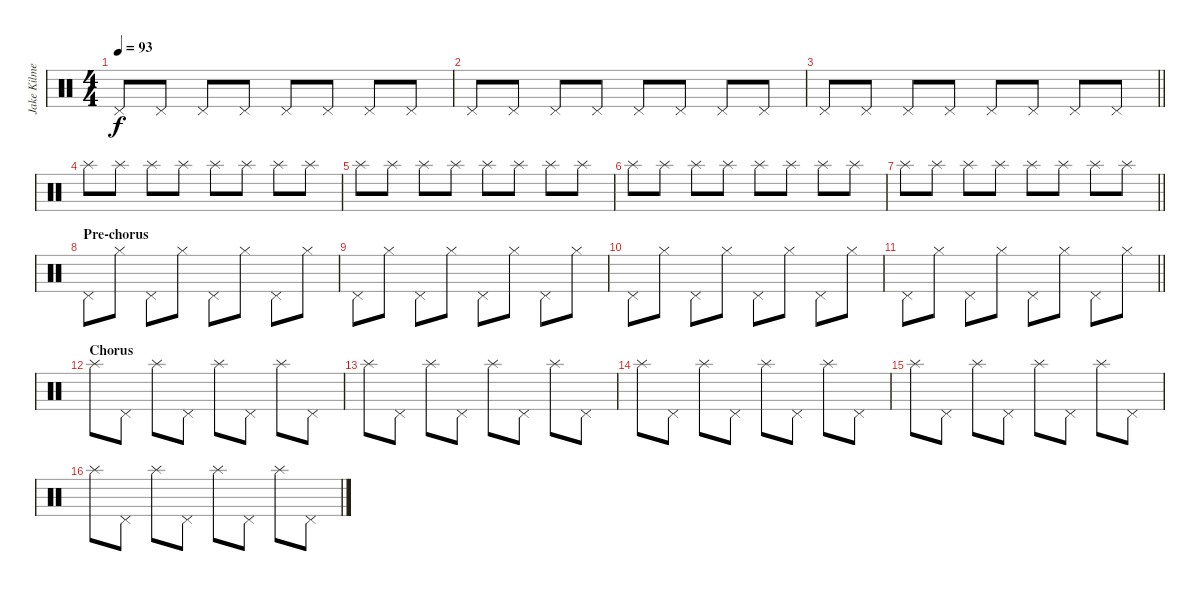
\track ("Jake Kilmer (Drums)" "Jake Kilme") {instrument percussion}
\staff {score}
\articulation defaults
\ts (4 4)
\tempo 93
\clef neutral
\ks c "Pedal Hi-Hat (hit)".8{dy f} "Pedal Hi-Hat (hit)".8 "Pedal Hi-Hat (hit)".8 "Pedal Hi-Hat (hit)".8 "Pedal Hi-Hat (hit)".8 "Pedal Hi-Hat (hit)".8 "Pedal Hi-Hat (hit)".8 "Pedal Hi-Hat (hit)".8
|
"Pedal Hi-Hat (hit)".8 "Pedal Hi-Hat (hit)".8 "Pedal Hi-Hat (hit)".8 "Pedal Hi-Hat (hit)".8 "Pedal Hi-Hat (hit)".8 "Pedal Hi-Hat (hit)".8 "Pedal Hi-Hat (hit)".8 "Pedal Hi-Hat (hit)".8 |
\barLineRight lightlight "Pedal Hi-Hat (hit)".8 "Pedal Hi-Hat (hit)".8 "Pedal Hi-Hat (hit)".8 "Pedal Hi-Hat (hit)".8 "Pedal Hi-Hat (hit)".8 "Pedal Hi-Hat (hit)".8 "Pedal Hi-Hat (hit)".8 "Pedal Hi-Hat (hit)".8
|
"Splash (hit)".8 "Splash (hit)".8 "Splash (hit)".8 "Splash (hit)".8 "Splash (hit)".8 "Splash (hit)".8 "Splash (hit)".8 "Splash (hit)".8 |
"Splash (hit)".8 "Splash (hit)".8 "Splash (hit)".8 "Splash (hit)".8 "Splash (hit)".8 "Splash (hit)".8 "Splash (hit)".8 "Splash (hit)".8 |
"Splash (hit)".8 "Splash (hit)".8 "Splash (hit)".8 "Splash (hit)".8 "Splash (hit)".8 "Splash (hit)".8 "Splash (hit)".8 "Splash (hit)".8 |
\barLineRight lightlight "Splash (hit)".8 "Splash (hit)".8 "Splash (hit)".8 "Splash (hit)".8 "Splash (hit)".8 "Splash (hit)".8 "Splash (hit)".8 "Splash (hit)".8
|
\section ("" "Pre-chorus")
"Pedal Hi-Hat (hit)".8 "Hi-Hat (closed)".8 "Pedal Hi-Hat (hit)".8 "Hi-Hat (closed)".8 "Pedal Hi-Hat (hit)".8 "Hi-Hat (closed)".8 "Pedal Hi-Hat (hit)".8 "Hi-Hat (closed)".8 |
"Pedal Hi-Hat (hit)".8 "Hi-Hat (closed)".8 "Pedal Hi-Hat (hit)".8 "Hi-Hat (closed)".8 "Pedal Hi-Hat (hit)".8 "Hi-Hat (closed)".8 "Pedal Hi-Hat (hit)".8 "Hi-Hat (closed)".8 |
"Pedal Hi-Hat (hit)".8 "Hi-Hat (closed)".8 "Pedal Hi-Hat (hit)".8 "Hi-Hat (closed)".8 "Pedal Hi-Hat (hit)".8 "Hi-Hat (closed)".8 "Pedal Hi-Hat (hit)".8 "Hi-Hat (closed)".8 |
\barLineRight lightlight "Pedal Hi-Hat (hit)".8 "Hi-Hat (closed)".8 "Pedal Hi-Hat (hit)".8 "Hi-Hat (closed)".8 "Pedal Hi-Hat (hit)".8 "Hi-Hat (closed)".8 "Pedal Hi-Hat (hit)".8 "Hi-Hat (closed)".8
|
\section ("" "Chorus")
"Splash (hit)".8 "Pedal Hi-Hat (hit)".8 "Splash (hit)".8 "Pedal Hi-Hat (hit)".8 "Splash (hit)".8 "Pedal Hi-Hat (hit)".8 "Splash (hit)".8 "Pedal Hi-Hat (hit)".8 |
"Splash (hit)".8 "Pedal Hi-Hat (hit)".8 "Splash (hit)".8 "Pedal Hi-Hat (hit)".8 "Splash (hit)".8 "Pedal Hi-Hat (hit)".8 "Splash (hit)".8 "Pedal Hi-Hat (hit)".8 |
"Splash (hit)".8 "Pedal Hi-Hat (hit)".8 "Splash (hit)".8 "Pedal Hi-Hat (hit)".8 "Splash (hit)".8 "Pedal Hi-Hat (hit)".8 "Splash (hit)".8 "Pedal Hi-Hat (hit)".8 |
"Splash (hit)".8 "Pedal Hi-Hat (hit)".8 "Splash (hit)".8 "Pedal Hi-Hat (hit)".8 "Splash (hit)".8 "Pedal Hi-Hat (hit)".8 "Splash (hit)".8 "Pedal Hi-Hat (hit)".8 |
"Splash (hit)".8 "Pedal Hi-Hat (hit)".8 "Splash (hit)".8 "Pedal Hi-Hat (hit)".8 "Splash (hit)".8 "Pedal Hi-Hat (hit)".8 "Splash (hit)".8 "Pedal Hi-Hat (hit)".8
